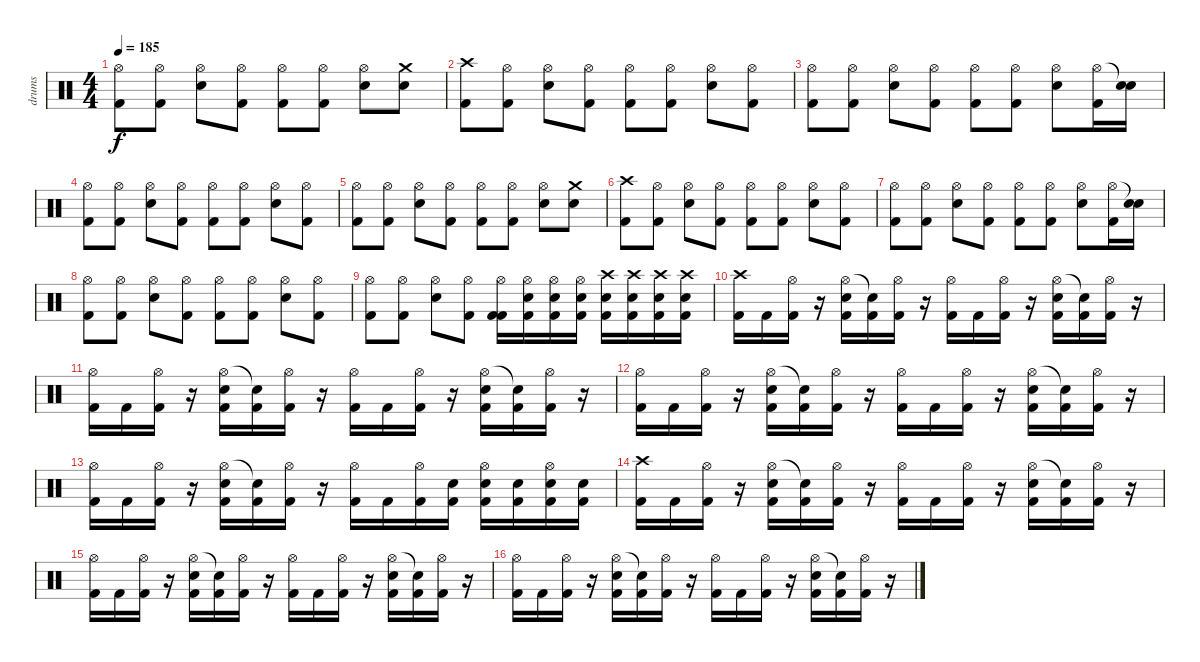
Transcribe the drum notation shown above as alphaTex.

\track ("drums" "drums") {instrument percussion}
\staff {score}
\articulation defaults
\ts (4 4)
\tempo 185
\clef neutral
\ks c
("Hi-Hat (open)" "Kick (hit) 2").8{dy f} ("Hi-Hat (open)" "Kick (hit) 2").8 ("Hi-Hat (open)" "Electric Snare (hit)").8 ("Hi-Hat (open)" "Kick (hit) 2").8 ("Hi-Hat (open)" "Kick (hit) 2").8 ("Hi-Hat (open)" "Kick (hit) 2").8 ("Hi-Hat (open)" "Electric Snare (hit)").8 ("Crash medium (hit)" "Electric Snare (hit)").8 |
("Crash high (hit)" "Kick (hit) 2").8 ("Hi-Hat (open)" "Kick (hit) 2").8 ("Hi-Hat (open)" "Electric Snare (hit)").8 ("Hi-Hat (open)" "Kick (hit) 2").8 ("Hi-Hat (open)" "Kick (hit) 2").8 ("Hi-Hat (open)" "Kick (hit) 2").8 ("Hi-Hat (open)" "Electric Snare (hit)").8 ("Hi-Hat (open)" "Kick (hit) 2").8 |
("Hi-Hat (open)" "Kick (hit) 2").8 ("Hi-Hat (open)" "Kick (hit) 2").8 ("Hi-Hat (open)" "Electric Snare (hit)").8 ("Hi-Hat (open)" "Kick (hit) 2").8 ("Hi-Hat (open)" "Kick (hit) 2").8 ("Hi-Hat (open)" "Kick (hit) 2").8 ("Hi-Hat (open)" "Electric Snare (hit)").8 ("Hi-Hat (open)" "Kick (hit) 2").16 ("Snare (hit)"{t} "Electric Snare (hit)").16 |
("Hi-Hat (open)" "Kick (hit) 2").8 ("Hi-Hat (open)" "Kick (hit) 2").8 ("Hi-Hat (open)" "Electric Snare (hit)").8 ("Hi-Hat (open)" "Kick (hit) 2").8 ("Hi-Hat (open)" "Kick (hit) 2").8 ("Hi-Hat (open)" "Kick (hit) 2").8 ("Hi-Hat (open)" "Electric Snare (hit)").8 ("Hi-Hat (open)" "Kick (hit) 2").8 |
("Hi-Hat (open)" "Kick (hit) 2").8 ("Hi-Hat (open)" "Kick (hit) 2").8 ("Hi-Hat (open)" "Electric Snare (hit)").8 ("Hi-Hat (open)" "Kick (hit) 2").8 ("Hi-Hat (open)" "Kick (hit) 2").8 ("Hi-Hat (open)" "Kick (hit) 2").8 ("Hi-Hat (open)" "Electric Snare (hit)").8 ("Crash medium (hit)" "Electric Snare (hit)").8 |
("Crash high (hit)" "Kick (hit) 2").8 ("Hi-Hat (open)" "Kick (hit) 2").8 ("Hi-Hat (open)" "Electric Snare (hit)").8 ("Hi-Hat (open)" "Kick (hit) 2").8 ("Hi-Hat (open)" "Kick (hit) 2").8 ("Hi-Hat (open)" "Kick (hit) 2").8 ("Hi-Hat (open)" "Electric Snare (hit)").8 ("Hi-Hat (open)" "Kick (hit) 2").8 |
("Hi-Hat (open)" "Kick (hit) 2").8 ("Hi-Hat (open)" "Kick (hit) 2").8 ("Hi-Hat (open)" "Electric Snare (hit)").8 ("Hi-Hat (open)" "Kick (hit) 2").8 ("Hi-Hat (open)" "Kick (hit) 2").8 ("Hi-Hat (open)" "Kick (hit) 2").8 ("Hi-Hat (open)" "Electric Snare (hit)").8 ("Hi-Hat (open)" "Kick (hit) 2").16 ("Snare (hit)"{t} "Electric Snare (hit)").16 |
("Hi-Hat (open)" "Kick (hit) 2").8 ("Hi-Hat (open)" "Kick (hit) 2").8 ("Hi-Hat (open)" "Electric Snare (hit)").8 ("Hi-Hat (open)" "Kick (hit) 2").8 ("Hi-Hat (open)" "Kick (hit) 2").8 ("Hi-Hat (open)" "Kick (hit) 2").8 ("Hi-Hat (open)" "Electric Snare (hit)").8 ("Hi-Hat (open)" "Kick (hit) 2").8 |
("Hi-Hat (open)" "Kick (hit) 2").8 ("Hi-Hat (open)" "Kick (hit) 2").8 ("Hi-Hat (open)" "Electric Snare (hit)").8 ("Hi-Hat (open)" "Kick (hit) 2").8 ("Hi-Hat (open)" "Kick (hit) 2" "Kick (hit) 2").16 ("Hi-Hat (open)" "Kick (hit) 2" "Electric Snare (hit)").16 ("Hi-Hat (open)" "Kick (hit) 2" "Electric Snare (hit)").16 ("Hi-Hat (open)" "Kick (hit) 2" "Electric Snare (hit)").16 ("Crash high (hit)" "Kick (hit) 2" "Electric Snare (hit)").16 ("Crash high (hit)" "Kick (hit) 2" "Electric Snare (hit)").16 ("Crash high (hit)" "Kick (hit) 2" "Electric Snare (hit)").16 ("Crash high (hit)" "Kick (hit) 2" "Electric Snare (hit)").16 |
("Crash high (hit)" "Kick (hit) 2").16 "Kick (hit) 2".16 ("Hi-Hat (open)" "Kick (hit) 2").16 r.16 ("Hi-Hat (open)" "Electric Snare (hit)" "Kick (hit) 2").16 ("Snare (hit)"{t} "Kick (hit) 2").16 ("Hi-Hat (open)" "Kick (hit) 2").16 r.16 ("Hi-Hat (open)" "Kick (hit) 2").16 "Kick (hit) 2".16 ("Hi-Hat (open)" "Kick (hit) 2").16 r.16 ("Hi-Hat (open)" "Electric Snare (hit)" "Kick (hit) 2").16 ("Snare (hit)"{t} "Kick (hit) 2").16 ("Hi-Hat (open)" "Kick (hit) 2").16 r.16 |
("Hi-Hat (open)" "Kick (hit) 2").16 "Kick (hit) 2".16 ("Hi-Hat (open)" "Kick (hit) 2").16 r.16 ("Hi-Hat (open)" "Electric Snare (hit)" "Kick (hit) 2").16 ("Snare (hit)"{t} "Kick (hit) 2").16 ("Hi-Hat (open)" "Kick (hit) 2").16 r.16 ("Hi-Hat (open)" "Kick (hit) 2").16 "Kick (hit) 2".16 ("Hi-Hat (open)" "Kick (hit) 2").16 r.16 ("Hi-Hat (open)" "Electric Snare (hit)" "Kick (hit) 2").16 ("Snare (hit)"{t} "Kick (hit) 2").16 ("Hi-Hat (open)" "Kick (hit) 2").16 r.16 |
("Hi-Hat (open)" "Kick (hit) 2").16 "Kick (hit) 2".16 ("Hi-Hat (open)" "Kick (hit) 2").16 r.16 ("Hi-Hat (open)" "Electric Snare (hit)" "Kick (hit) 2").16 ("Snare (hit)"{t} "Kick (hit) 2").16 ("Hi-Hat (open)" "Kick (hit) 2").16 r.16 ("Hi-Hat (open)" "Kick (hit) 2").16 "Kick (hit) 2".16 ("Hi-Hat (open)" "Kick (hit) 2").16 r.16 ("Hi-Hat (open)" "Electric Snare (hit)" "Kick (hit) 2").16 ("Snare (hit)"{t} "Kick (hit) 2").16 ("Hi-Hat (open)" "Kick (hit) 2").16 r.16 |
("Hi-Hat (open)" "Kick (hit) 2").16 "Kick (hit) 2".16 ("Hi-Hat (open)" "Kick (hit) 2").16 r.16 ("Hi-Hat (open)" "Electric Snare (hit)" "Kick (hit) 2").16 ("Snare (hit)"{t} "Kick (hit) 2").16 ("Hi-Hat (open)" "Kick (hit) 2").16 r.16 ("Hi-Hat (open)" "Kick (hit) 2").16 "Kick (hit) 2".16 ("Hi-Hat (open)" "Kick (hit) 2").16 ("Electric Snare (hit)" "Kick (hit) 2").16 ("Hi-Hat (open)" "Electric Snare (hit)" "Kick (hit) 2").16 ("Electric Snare (hit)" "Kick (hit) 2").16 ("Hi-Hat (open)" "Electric Snare (hit)" "Kick (hit) 2").16 ("Electric Snare (hit)" "Kick (hit) 2").16 |
("Crash high (hit)" "Kick (hit) 2").16 "Kick (hit) 2".16 ("Hi-Hat (open)" "Kick (hit) 2").16 r.16 ("Hi-Hat (open)" "Electric Snare (hit)" "Kick (hit) 2").16 ("Snare (hit)"{t} "Kick (hit) 2").16 ("Hi-Hat (open)" "Kick (hit) 2").16 r.16 ("Hi-Hat (open)" "Kick (hit) 2").16 "Kick (hit) 2".16 ("Hi-Hat (open)" "Kick (hit) 2").16 r.16 ("Hi-Hat (open)" "Electric Snare (hit)" "Kick (hit) 2").16 ("Snare (hit)"{t} "Kick (hit) 2").16 ("Hi-Hat (open)" "Kick (hit) 2").16 r.16 |
("Hi-Hat (open)" "Kick (hit) 2").16 "Kick (hit) 2".16 ("Hi-Hat (open)" "Kick (hit) 2").16 r.16 ("Hi-Hat (open)" "Electric Snare (hit)" "Kick (hit) 2").16 ("Snare (hit)"{t} "Kick (hit) 2").16 ("Hi-Hat (open)" "Kick (hit) 2").16 r.16 ("Hi-Hat (open)" "Kick (hit) 2").16 "Kick (hit) 2".16 ("Hi-Hat (open)" "Kick (hit) 2").16 r.16 ("Hi-Hat (open)" "Electric Snare (hit)" "Kick (hit) 2").16 ("Snare (hit)"{t} "Kick (hit) 2").16 ("Hi-Hat (open)" "Kick (hit) 2").16 r.16 |
("Hi-Hat (open)" "Kick (hit) 2").16 "Kick (hit) 2".16 ("Hi-Hat (open)" "Kick (hit) 2").16 r.16 ("Hi-Hat (open)" "Electric Snare (hit)" "Kick (hit) 2").16 ("Snare (hit)"{t} "Kick (hit) 2").16 ("Hi-Hat (open)" "Kick (hit) 2").16 r.16 ("Hi-Hat (open)" "Kick (hit) 2").16 "Kick (hit) 2".16 ("Hi-Hat (open)" "Kick (hit) 2").16 r.16 ("Hi-Hat (open)" "Electric Snare (hit)" "Kick (hit) 2").16 ("Snare (hit)"{t} "Kick (hit) 2").16 ("Hi-Hat (open)" "Kick (hit) 2").16 r.16
